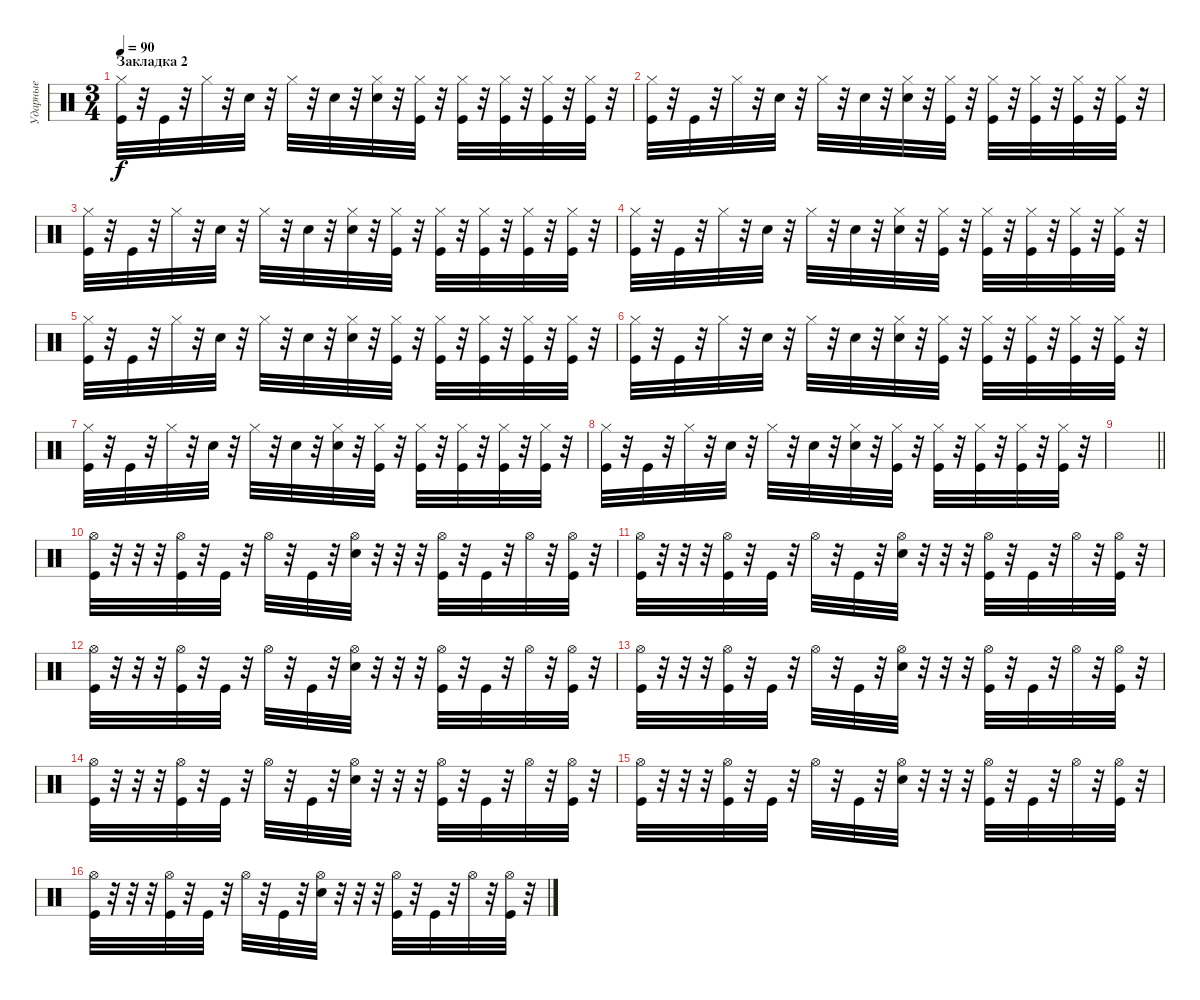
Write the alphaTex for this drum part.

\track ("Ударные" "Ударные") {instrument percussion}
\staff {score}
\articulation defaults
\ts (3 4)
\section ("" "Закладка 2")
\tempo 90
\clef neutral
\ks c
("Hi-Hat (closed)" "Kick (hit)").32{dy f} r.32 "Kick (hit)".32 r.32 "Hi-Hat (closed)".32 r.32 "Snare (hit)".32 r.32 "Hi-Hat (closed)".32 r.32 "Snare (hit)".32 r.32 ("Hi-Hat (closed)" "Electric Snare (hit)").32 r.32 ("Hi-Hat (closed)" "Kick (hit)").32 r.32 ("Hi-Hat (closed)" "Kick (hit)").32 r.32 ("Hi-Hat (closed)" "Kick (hit)").32 r.32 ("Hi-Hat (closed)" "Kick (hit)").32 r.32 ("Hi-Hat (closed)" "Kick (hit)").32 r.32 |
("Hi-Hat (closed)" "Kick (hit)").32 r.32 "Kick (hit)".32 r.32 "Hi-Hat (closed)".32 r.32 "Snare (hit)".32 r.32 "Hi-Hat (closed)".32 r.32 "Snare (hit)".32 r.32 ("Hi-Hat (closed)" "Electric Snare (hit)").32 r.32 ("Hi-Hat (closed)" "Kick (hit)").32 r.32 ("Hi-Hat (closed)" "Kick (hit)").32 r.32 ("Hi-Hat (closed)" "Kick (hit)").32 r.32 ("Hi-Hat (closed)" "Kick (hit)").32 r.32 ("Hi-Hat (closed)" "Kick (hit)").32 r.32 |
("Hi-Hat (closed)" "Kick (hit)").32 r.32 "Kick (hit)".32 r.32 "Hi-Hat (closed)".32 r.32 "Snare (hit)".32 r.32 "Hi-Hat (closed)".32 r.32 "Snare (hit)".32 r.32 ("Hi-Hat (closed)" "Electric Snare (hit)").32 r.32 ("Hi-Hat (closed)" "Kick (hit)").32 r.32 ("Hi-Hat (closed)" "Kick (hit)").32 r.32 ("Hi-Hat (closed)" "Kick (hit)").32 r.32 ("Hi-Hat (closed)" "Kick (hit)").32 r.32 ("Hi-Hat (closed)" "Kick (hit)").32 r.32 |
("Hi-Hat (closed)" "Kick (hit)").32 r.32 "Kick (hit)".32 r.32 "Hi-Hat (closed)".32 r.32 "Snare (hit)".32 r.32 "Hi-Hat (closed)".32 r.32 "Snare (hit)".32 r.32 ("Hi-Hat (closed)" "Electric Snare (hit)").32 r.32 ("Hi-Hat (closed)" "Kick (hit)").32 r.32 ("Hi-Hat (closed)" "Kick (hit)").32 r.32 ("Hi-Hat (closed)" "Kick (hit)").32 r.32 ("Hi-Hat (closed)" "Kick (hit)").32 r.32 ("Hi-Hat (closed)" "Kick (hit)").32 r.32 |
("Hi-Hat (closed)" "Kick (hit)").32 r.32 "Kick (hit)".32 r.32 "Hi-Hat (closed)".32 r.32 "Snare (hit)".32 r.32 "Hi-Hat (closed)".32 r.32 "Snare (hit)".32 r.32 ("Hi-Hat (closed)" "Electric Snare (hit)").32 r.32 ("Hi-Hat (closed)" "Kick (hit)").32 r.32 ("Hi-Hat (closed)" "Kick (hit)").32 r.32 ("Hi-Hat (closed)" "Kick (hit)").32 r.32 ("Hi-Hat (closed)" "Kick (hit)").32 r.32 ("Hi-Hat (closed)" "Kick (hit)").32 r.32 |
("Hi-Hat (closed)" "Kick (hit)").32 r.32 "Kick (hit)".32 r.32 "Hi-Hat (closed)".32 r.32 "Snare (hit)".32 r.32 "Hi-Hat (closed)".32 r.32 "Snare (hit)".32 r.32 ("Hi-Hat (closed)" "Electric Snare (hit)").32 r.32 ("Hi-Hat (closed)" "Kick (hit)").32 r.32 ("Hi-Hat (closed)" "Kick (hit)").32 r.32 ("Hi-Hat (closed)" "Kick (hit)").32 r.32 ("Hi-Hat (closed)" "Kick (hit)").32 r.32 ("Hi-Hat (closed)" "Kick (hit)").32 r.32 |
("Hi-Hat (closed)" "Kick (hit)").32 r.32 "Kick (hit)".32 r.32 "Hi-Hat (closed)".32 r.32 "Snare (hit)".32 r.32 "Hi-Hat (closed)".32 r.32 "Snare (hit)".32 r.32 ("Hi-Hat (closed)" "Electric Snare (hit)").32 r.32 ("Hi-Hat (closed)" "Kick (hit)").32 r.32 ("Hi-Hat (closed)" "Kick (hit)").32 r.32 ("Hi-Hat (closed)" "Kick (hit)").32 r.32 ("Hi-Hat (closed)" "Kick (hit)").32 r.32 ("Hi-Hat (closed)" "Kick (hit)").32 r.32 |
("Hi-Hat (closed)" "Kick (hit)").32 r.32 "Kick (hit)".32 r.32 "Hi-Hat (closed)".32 r.32 "Snare (hit)".32 r.32 "Hi-Hat (closed)".32 r.32 "Snare (hit)".32 r.32 ("Hi-Hat (closed)" "Electric Snare (hit)").32 r.32 ("Hi-Hat (closed)" "Kick (hit)").32 r.32 ("Hi-Hat (closed)" "Kick (hit)").32 r.32 ("Hi-Hat (closed)" "Kick (hit)").32 r.32 ("Hi-Hat (closed)" "Kick (hit)").32 r.32 ("Hi-Hat (closed)" "Kick (hit)").32 r.32 |
\barLineRight lightlight
|
("Hi-Hat (open)" "Kick (hit)").32 r.32 r.32 r.32 ("Hi-Hat (open)" "Kick (hit)").32 r.32 "Kick (hit)".32 r.32 "Hi-Hat (open)".32 r.32 "Kick (hit)".32 r.32 ("Hi-Hat (open)" "Electric Snare (hit)").32 r.32 r.32 r.32 ("Hi-Hat (open)" "Kick (hit)").32 r.32 "Kick (hit)".32 r.32 "Hi-Hat (open)".32 r.32 ("Hi-Hat (open)" "Kick (hit)").32 r.32 |
("Hi-Hat (open)" "Kick (hit)").32 r.32 r.32 r.32 ("Hi-Hat (open)" "Kick (hit)").32 r.32 "Kick (hit)".32 r.32 "Hi-Hat (open)".32 r.32 "Kick (hit)".32 r.32 ("Hi-Hat (open)" "Electric Snare (hit)").32 r.32 r.32 r.32 ("Hi-Hat (open)" "Kick (hit)").32 r.32 "Kick (hit)".32 r.32 "Hi-Hat (open)".32 r.32 ("Hi-Hat (open)" "Kick (hit)").32 r.32 |
("Hi-Hat (open)" "Kick (hit)").32 r.32 r.32 r.32 ("Hi-Hat (open)" "Kick (hit)").32 r.32 "Kick (hit)".32 r.32 "Hi-Hat (open)".32 r.32 "Kick (hit)".32 r.32 ("Hi-Hat (open)" "Electric Snare (hit)").32 r.32 r.32 r.32 ("Hi-Hat (open)" "Kick (hit)").32 r.32 "Kick (hit)".32 r.32 "Hi-Hat (open)".32 r.32 ("Hi-Hat (open)" "Kick (hit)").32 r.32 |
("Hi-Hat (open)" "Kick (hit)").32 r.32 r.32 r.32 ("Hi-Hat (open)" "Kick (hit)").32 r.32 "Kick (hit)".32 r.32 "Hi-Hat (open)".32 r.32 "Kick (hit)".32 r.32 ("Hi-Hat (open)" "Electric Snare (hit)").32 r.32 r.32 r.32 ("Hi-Hat (open)" "Kick (hit)").32 r.32 "Kick (hit)".32 r.32 "Hi-Hat (open)".32 r.32 ("Hi-Hat (open)" "Kick (hit)").32 r.32 |
("Hi-Hat (open)" "Kick (hit)").32 r.32 r.32 r.32 ("Hi-Hat (open)" "Kick (hit)").32 r.32 "Kick (hit)".32 r.32 "Hi-Hat (open)".32 r.32 "Kick (hit)".32 r.32 ("Hi-Hat (open)" "Electric Snare (hit)").32 r.32 r.32 r.32 ("Hi-Hat (open)" "Kick (hit)").32 r.32 "Kick (hit)".32 r.32 "Hi-Hat (open)".32 r.32 ("Hi-Hat (open)" "Kick (hit)").32 r.32 |
("Hi-Hat (open)" "Kick (hit)").32 r.32 r.32 r.32 ("Hi-Hat (open)" "Kick (hit)").32 r.32 "Kick (hit)".32 r.32 "Hi-Hat (open)".32 r.32 "Kick (hit)".32 r.32 ("Hi-Hat (open)" "Electric Snare (hit)").32 r.32 r.32 r.32 ("Hi-Hat (open)" "Kick (hit)").32 r.32 "Kick (hit)".32 r.32 "Hi-Hat (open)".32 r.32 ("Hi-Hat (open)" "Kick (hit)").32 r.32 |
("Hi-Hat (open)" "Kick (hit)").32 r.32 r.32 r.32 ("Hi-Hat (open)" "Kick (hit)").32 r.32 "Kick (hit)".32 r.32 "Hi-Hat (open)".32 r.32 "Kick (hit)".32 r.32 ("Hi-Hat (open)" "Electric Snare (hit)").32 r.32 r.32 r.32 ("Hi-Hat (open)" "Kick (hit)").32 r.32 "Kick (hit)".32 r.32 "Hi-Hat (open)".32 r.32 ("Hi-Hat (open)" "Kick (hit)").32 r.32
